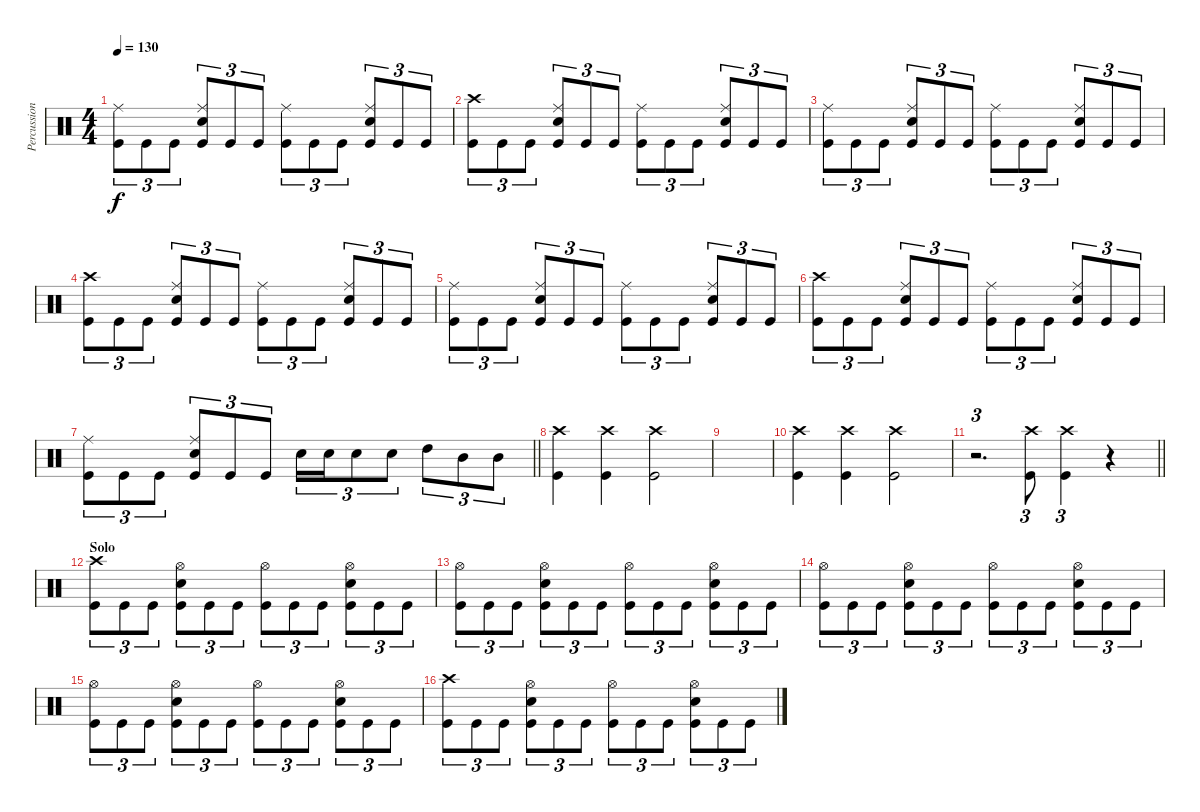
\track ("Percussioni" "Percussion") {instrument percussion}
\staff {score}
\articulation defaults
\ts (4 4)
\tempo 130
\clef neutral
\ks c
("Kick (hit)" "Ride (middle)").8{tu (3 2) dy f} "Kick (hit)".8{tu (3 2)} "Kick (hit)".8{tu (3 2)} ("Kick (hit)" "Snare (hit) 2" "Ride (middle)").8{tu (3 2)} "Kick (hit)".8{tu (3 2)} "Kick (hit)".8{tu (3 2)} ("Kick (hit)" "Ride (middle)").8{tu (3 2)} "Kick (hit)".8{tu (3 2)} "Kick (hit)".8{tu (3 2)} ("Kick (hit)" "Snare (hit) 2" "Ride (middle)").8{tu (3 2)} "Kick (hit)".8{tu (3 2)} "Kick (hit)".8{tu (3 2)} |
("Kick (hit)" "Crash high (hit)").8{tu (3 2)} "Kick (hit)".8{tu (3 2)} "Kick (hit)".8{tu (3 2)} ("Kick (hit)" "Snare (hit) 2" "Ride (middle)").8{tu (3 2)} "Kick (hit)".8{tu (3 2)} "Kick (hit)".8{tu (3 2)} ("Kick (hit)" "Ride (middle)").8{tu (3 2)} "Kick (hit)".8{tu (3 2)} "Kick (hit)".8{tu (3 2)} ("Kick (hit)" "Snare (hit) 2" "Ride (middle)").8{tu (3 2)} "Kick (hit)".8{tu (3 2)} "Kick (hit)".8{tu (3 2)} |
("Kick (hit)" "Ride (middle)").8{tu (3 2)} "Kick (hit)".8{tu (3 2)} "Kick (hit)".8{tu (3 2)} ("Kick (hit)" "Snare (hit) 2" "Ride (middle)").8{tu (3 2)} "Kick (hit)".8{tu (3 2)} "Kick (hit)".8{tu (3 2)} ("Kick (hit)" "Ride (middle)").8{tu (3 2)} "Kick (hit)".8{tu (3 2)} "Kick (hit)".8{tu (3 2)} ("Kick (hit)" "Snare (hit) 2" "Ride (middle)").8{tu (3 2)} "Kick (hit)".8{tu (3 2)} "Kick (hit)".8{tu (3 2)} |
("Kick (hit)" "Crash high (hit)").8{tu (3 2)} "Kick (hit)".8{tu (3 2)} "Kick (hit)".8{tu (3 2)} ("Kick (hit)" "Snare (hit) 2" "Ride (middle)").8{tu (3 2)} "Kick (hit)".8{tu (3 2)} "Kick (hit)".8{tu (3 2)} ("Kick (hit)" "Ride (middle)").8{tu (3 2)} "Kick (hit)".8{tu (3 2)} "Kick (hit)".8{tu (3 2)} ("Kick (hit)" "Snare (hit) 2" "Ride (middle)").8{tu (3 2)} "Kick (hit)".8{tu (3 2)} "Kick (hit)".8{tu (3 2)} |
("Kick (hit)" "Ride (middle)").8{tu (3 2)} "Kick (hit)".8{tu (3 2)} "Kick (hit)".8{tu (3 2)} ("Kick (hit)" "Snare (hit) 2" "Ride (middle)").8{tu (3 2)} "Kick (hit)".8{tu (3 2)} "Kick (hit)".8{tu (3 2)} ("Kick (hit)" "Ride (middle)").8{tu (3 2)} "Kick (hit)".8{tu (3 2)} "Kick (hit)".8{tu (3 2)} ("Kick (hit)" "Snare (hit) 2" "Ride (middle)").8{tu (3 2)} "Kick (hit)".8{tu (3 2)} "Kick (hit)".8{tu (3 2)} |
("Kick (hit)" "Crash high (hit)").8{tu (3 2)} "Kick (hit)".8{tu (3 2)} "Kick (hit)".8{tu (3 2)} ("Kick (hit)" "Snare (hit) 2" "Ride (middle)").8{tu (3 2)} "Kick (hit)".8{tu (3 2)} "Kick (hit)".8{tu (3 2)} ("Kick (hit)" "Ride (middle)").8{tu (3 2)} "Kick (hit)".8{tu (3 2)} "Kick (hit)".8{tu (3 2)} ("Kick (hit)" "Snare (hit) 2" "Ride (middle)").8{tu (3 2)} "Kick (hit)".8{tu (3 2)} "Kick (hit)".8{tu (3 2)} |
\barLineRight lightlight
("Kick (hit)" "Ride (middle)").8{tu (3 2)} "Kick (hit)".8{tu (3 2)} "Kick (hit)".8{tu (3 2)} ("Kick (hit)" "Snare (hit) 2" "Ride (middle)").8{tu (3 2)} "Kick (hit)".8{tu (3 2)} "Kick (hit)".8{tu (3 2)} "Snare (hit) 2".16{tu (3 2)} "Snare (hit) 2".16{tu (3 2)} "Snare (hit) 2".8{tu (3 2)} "Snare (hit) 2".8{tu (3 2)} "High Tom (hit)".8{tu (3 2)} "Mid Tom (hit)".8{tu (3 2)} "Mid Tom (hit)".8{tu (3 2)} |
("Kick (hit)" "Crash high (hit)").4 ("Kick (hit)" "Crash high (hit)").4 ("Kick (hit)" "Crash high (hit)").2 |
|
("Kick (hit)" "Crash high (hit)").4 ("Kick (hit)" "Crash high (hit)").4 ("Kick (hit)" "Crash high (hit)").2 |
\barLineRight lightlight
r.2{d tu (3 2)} ("Kick (hit)" "Crash high (hit)").8{tu (3 2)} ("Kick (hit)" "Crash high (hit)").4{tu (3 2)} r.4 |
\section ("" "Solo")
("Kick (hit)" "Crash high (hit)").8{tu (3 2)} "Kick (hit)".8{tu (3 2)} "Kick (hit)".8{tu (3 2)} ("Kick (hit)" "Snare (hit) 2" "Hi-Hat (open)").8{tu (3 2)} "Kick (hit)".8{tu (3 2)} "Kick (hit)".8{tu (3 2)} ("Kick (hit)" "Hi-Hat (open)").8{tu (3 2)} "Kick (hit)".8{tu (3 2)} "Kick (hit)".8{tu (3 2)} ("Kick (hit)" "Snare (hit) 2" "Hi-Hat (open)").8{tu (3 2)} "Kick (hit)".8{tu (3 2)} "Kick (hit)".8{tu (3 2)} |
("Kick (hit)" "Hi-Hat (open)").8{tu (3 2)} "Kick (hit)".8{tu (3 2)} "Kick (hit)".8{tu (3 2)} ("Kick (hit)" "Snare (hit) 2" "Hi-Hat (open)").8{tu (3 2)} "Kick (hit)".8{tu (3 2)} "Kick (hit)".8{tu (3 2)} ("Kick (hit)" "Hi-Hat (open)").8{tu (3 2)} "Kick (hit)".8{tu (3 2)} "Kick (hit)".8{tu (3 2)} ("Kick (hit)" "Snare (hit) 2" "Hi-Hat (open)").8{tu (3 2)} "Kick (hit)".8{tu (3 2)} "Kick (hit)".8{tu (3 2)} |
("Kick (hit)" "Hi-Hat (open)").8{tu (3 2)} "Kick (hit)".8{tu (3 2)} "Kick (hit)".8{tu (3 2)} ("Kick (hit)" "Snare (hit) 2" "Hi-Hat (open)").8{tu (3 2)} "Kick (hit)".8{tu (3 2)} "Kick (hit)".8{tu (3 2)} ("Kick (hit)" "Hi-Hat (open)").8{tu (3 2)} "Kick (hit)".8{tu (3 2)} "Kick (hit)".8{tu (3 2)} ("Kick (hit)" "Snare (hit) 2" "Hi-Hat (open)").8{tu (3 2)} "Kick (hit)".8{tu (3 2)} "Kick (hit)".8{tu (3 2)} |
("Kick (hit)" "Hi-Hat (open)").8{tu (3 2)} "Kick (hit)".8{tu (3 2)} "Kick (hit)".8{tu (3 2)} ("Kick (hit)" "Snare (hit) 2" "Hi-Hat (open)").8{tu (3 2)} "Kick (hit)".8{tu (3 2)} "Kick (hit)".8{tu (3 2)} ("Kick (hit)" "Hi-Hat (open)").8{tu (3 2)} "Kick (hit)".8{tu (3 2)} "Kick (hit)".8{tu (3 2)} ("Kick (hit)" "Snare (hit) 2" "Hi-Hat (open)").8{tu (3 2)} "Kick (hit)".8{tu (3 2)} "Kick (hit)".8{tu (3 2)} |
("Kick (hit)" "Crash high (hit)").8{tu (3 2)} "Kick (hit)".8{tu (3 2)} "Kick (hit)".8{tu (3 2)} ("Kick (hit)" "Snare (hit) 2" "Hi-Hat (open)").8{tu (3 2)} "Kick (hit)".8{tu (3 2)} "Kick (hit)".8{tu (3 2)} ("Kick (hit)" "Hi-Hat (open)").8{tu (3 2)} "Kick (hit)".8{tu (3 2)} "Kick (hit)".8{tu (3 2)} ("Kick (hit)" "Snare (hit) 2" "Hi-Hat (open)").8{tu (3 2)} "Kick (hit)".8{tu (3 2)} "Kick (hit)".8{tu (3 2)}
